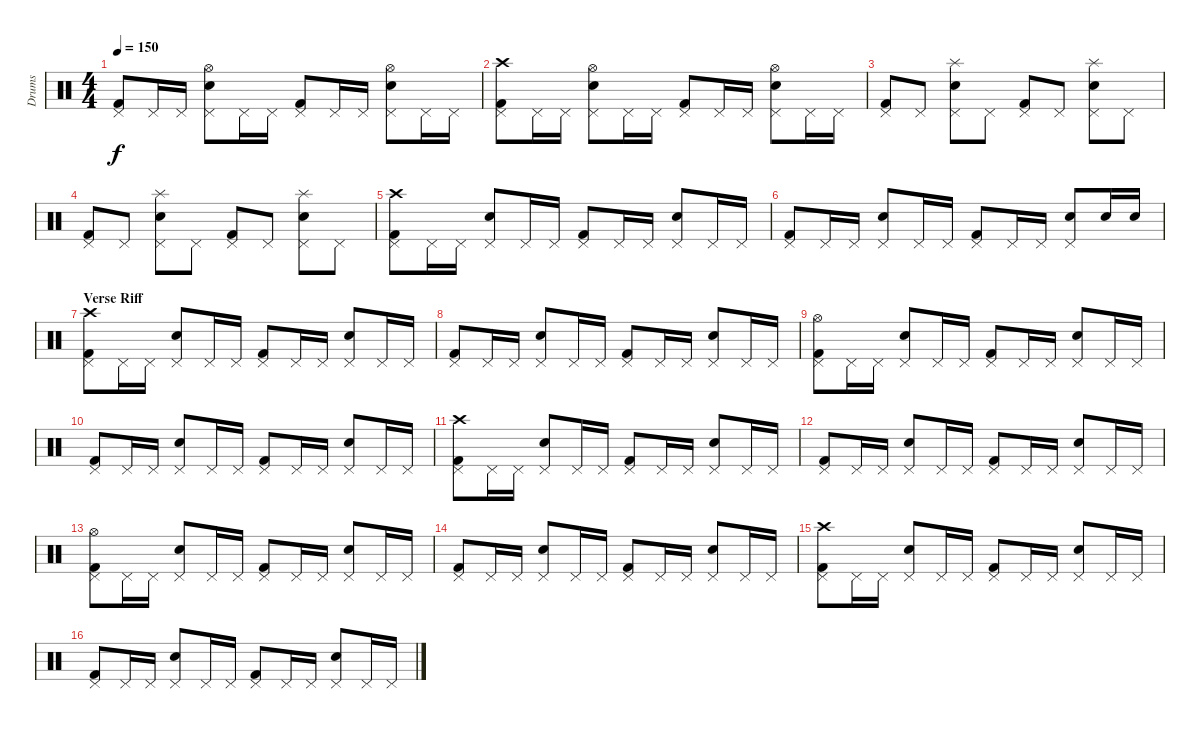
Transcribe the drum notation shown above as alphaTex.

\track ("Drums" "Drums") {instrument percussion}
\staff {score}
\articulation defaults
\ts (4 4)
\tempo 150
\clef neutral
\ks c
("Kick (hit) 2" "Pedal Hi-Hat (hit)").8{dy f} "Pedal Hi-Hat (hit)".16 "Pedal Hi-Hat (hit)".16 ("Snare (hit) 2" "Pedal Hi-Hat (hit)" "Hi-Hat (open)").8 "Pedal Hi-Hat (hit)".16 "Pedal Hi-Hat (hit)".16 ("Kick (hit) 2" "Pedal Hi-Hat (hit)").8 "Pedal Hi-Hat (hit)".16 "Pedal Hi-Hat (hit)".16 ("Snare (hit) 2" "Pedal Hi-Hat (hit)" "Hi-Hat (open)").8 "Pedal Hi-Hat (hit)".16 "Pedal Hi-Hat (hit)".16 |
("Kick (hit) 2" "Pedal Hi-Hat (hit)" "Crash high (hit)").8 "Pedal Hi-Hat (hit)".16 "Pedal Hi-Hat (hit)".16 ("Snare (hit) 2" "Pedal Hi-Hat (hit)" "Hi-Hat (open)").8 "Pedal Hi-Hat (hit)".16 "Pedal Hi-Hat (hit)".16 ("Kick (hit) 2" "Pedal Hi-Hat (hit)").8 "Pedal Hi-Hat (hit)".16 "Pedal Hi-Hat (hit)".16 ("Snare (hit) 2" "Pedal Hi-Hat (hit)" "Hi-Hat (open)").8 "Pedal Hi-Hat (hit)".16 "Pedal Hi-Hat (hit)".16 |
("Kick (hit) 2" "Pedal Hi-Hat (hit)").8 "Pedal Hi-Hat (hit)".8 ("Snare (hit) 2" "Pedal Hi-Hat (hit)" "Splash (hit)").8 "Pedal Hi-Hat (hit)".8 ("Kick (hit) 2" "Pedal Hi-Hat (hit)").8 "Pedal Hi-Hat (hit)".8 ("Snare (hit) 2" "Pedal Hi-Hat (hit)" "Splash (hit)").8 "Pedal Hi-Hat (hit)".8 |
("Kick (hit) 2" "Pedal Hi-Hat (hit)").8 "Pedal Hi-Hat (hit)".8 ("Snare (hit) 2" "Pedal Hi-Hat (hit)" "Splash (hit)").8 "Pedal Hi-Hat (hit)".8 ("Kick (hit) 2" "Pedal Hi-Hat (hit)").8 "Pedal Hi-Hat (hit)".8 ("Snare (hit) 2" "Pedal Hi-Hat (hit)" "Splash (hit)").8 "Pedal Hi-Hat (hit)".8 |
("Kick (hit) 2" "Pedal Hi-Hat (hit)" "Crash high (hit)").8 "Pedal Hi-Hat (hit)".16 "Pedal Hi-Hat (hit)".16 ("Snare (hit) 2" "Pedal Hi-Hat (hit)").8 "Pedal Hi-Hat (hit)".16 "Pedal Hi-Hat (hit)".16 ("Kick (hit) 2" "Pedal Hi-Hat (hit)").8 "Pedal Hi-Hat (hit)".16 "Pedal Hi-Hat (hit)".16 ("Snare (hit) 2" "Pedal Hi-Hat (hit)").8 "Pedal Hi-Hat (hit)".16 "Pedal Hi-Hat (hit)".16 |
("Kick (hit) 2" "Pedal Hi-Hat (hit)").8 "Pedal Hi-Hat (hit)".16 "Pedal Hi-Hat (hit)".16 ("Snare (hit) 2" "Pedal Hi-Hat (hit)").8 "Pedal Hi-Hat (hit)".16 "Pedal Hi-Hat (hit)".16 ("Kick (hit) 2" "Pedal Hi-Hat (hit)").8 "Pedal Hi-Hat (hit)".16 "Pedal Hi-Hat (hit)".16 ("Snare (hit) 2" "Pedal Hi-Hat (hit)").8 "Snare (hit) 2".16 "Snare (hit) 2".16 |
\section ("" "Verse Riff")
("Kick (hit) 2" "Pedal Hi-Hat (hit)" "Crash high (hit)").8 "Pedal Hi-Hat (hit)".16 "Pedal Hi-Hat (hit)".16 ("Snare (hit) 2" "Pedal Hi-Hat (hit)").8 "Pedal Hi-Hat (hit)".16 "Pedal Hi-Hat (hit)".16 ("Kick (hit) 2" "Pedal Hi-Hat (hit)").8 "Pedal Hi-Hat (hit)".16 "Pedal Hi-Hat (hit)".16 ("Snare (hit) 2" "Pedal Hi-Hat (hit)").8 "Pedal Hi-Hat (hit)".16 "Pedal Hi-Hat (hit)".16 |
("Kick (hit) 2" "Pedal Hi-Hat (hit)").8 "Pedal Hi-Hat (hit)".16 "Pedal Hi-Hat (hit)".16 ("Snare (hit) 2" "Pedal Hi-Hat (hit)").8 "Pedal Hi-Hat (hit)".16 "Pedal Hi-Hat (hit)".16 ("Kick (hit) 2" "Pedal Hi-Hat (hit)").8 "Pedal Hi-Hat (hit)".16 "Pedal Hi-Hat (hit)".16 ("Snare (hit) 2" "Pedal Hi-Hat (hit)").8 "Pedal Hi-Hat (hit)".16 "Pedal Hi-Hat (hit)".16 |
("Kick (hit) 2" "Pedal Hi-Hat (hit)" "Hi-Hat (open)").8 "Pedal Hi-Hat (hit)".16 "Pedal Hi-Hat (hit)".16 ("Snare (hit) 2" "Pedal Hi-Hat (hit)").8 "Pedal Hi-Hat (hit)".16 "Pedal Hi-Hat (hit)".16 ("Kick (hit) 2" "Pedal Hi-Hat (hit)").8 "Pedal Hi-Hat (hit)".16 "Pedal Hi-Hat (hit)".16 ("Snare (hit) 2" "Pedal Hi-Hat (hit)").8 "Pedal Hi-Hat (hit)".16 "Pedal Hi-Hat (hit)".16 |
("Kick (hit) 2" "Pedal Hi-Hat (hit)").8 "Pedal Hi-Hat (hit)".16 "Pedal Hi-Hat (hit)".16 ("Snare (hit) 2" "Pedal Hi-Hat (hit)").8 "Pedal Hi-Hat (hit)".16 "Pedal Hi-Hat (hit)".16 ("Kick (hit) 2" "Pedal Hi-Hat (hit)").8 "Pedal Hi-Hat (hit)".16 "Pedal Hi-Hat (hit)".16 ("Snare (hit) 2" "Pedal Hi-Hat (hit)").8 "Pedal Hi-Hat (hit)".16 "Pedal Hi-Hat (hit)".16 |
("Kick (hit) 2" "Pedal Hi-Hat (hit)" "Crash high (hit)").8 "Pedal Hi-Hat (hit)".16 "Pedal Hi-Hat (hit)".16 ("Snare (hit) 2" "Pedal Hi-Hat (hit)").8 "Pedal Hi-Hat (hit)".16 "Pedal Hi-Hat (hit)".16 ("Kick (hit) 2" "Pedal Hi-Hat (hit)").8 "Pedal Hi-Hat (hit)".16 "Pedal Hi-Hat (hit)".16 ("Snare (hit) 2" "Pedal Hi-Hat (hit)").8 "Pedal Hi-Hat (hit)".16 "Pedal Hi-Hat (hit)".16 |
("Kick (hit) 2" "Pedal Hi-Hat (hit)").8 "Pedal Hi-Hat (hit)".16 "Pedal Hi-Hat (hit)".16 ("Snare (hit) 2" "Pedal Hi-Hat (hit)").8 "Pedal Hi-Hat (hit)".16 "Pedal Hi-Hat (hit)".16 ("Kick (hit) 2" "Pedal Hi-Hat (hit)").8 "Pedal Hi-Hat (hit)".16 "Pedal Hi-Hat (hit)".16 ("Snare (hit) 2" "Pedal Hi-Hat (hit)").8 "Pedal Hi-Hat (hit)".16 "Pedal Hi-Hat (hit)".16 |
("Kick (hit) 2" "Pedal Hi-Hat (hit)" "Hi-Hat (open)").8 "Pedal Hi-Hat (hit)".16 "Pedal Hi-Hat (hit)".16 ("Snare (hit) 2" "Pedal Hi-Hat (hit)").8 "Pedal Hi-Hat (hit)".16 "Pedal Hi-Hat (hit)".16 ("Kick (hit) 2" "Pedal Hi-Hat (hit)").8 "Pedal Hi-Hat (hit)".16 "Pedal Hi-Hat (hit)".16 ("Snare (hit) 2" "Pedal Hi-Hat (hit)").8 "Pedal Hi-Hat (hit)".16 "Pedal Hi-Hat (hit)".16 |
("Kick (hit) 2" "Pedal Hi-Hat (hit)").8 "Pedal Hi-Hat (hit)".16 "Pedal Hi-Hat (hit)".16 ("Snare (hit) 2" "Pedal Hi-Hat (hit)").8 "Pedal Hi-Hat (hit)".16 "Pedal Hi-Hat (hit)".16 ("Kick (hit) 2" "Pedal Hi-Hat (hit)").8 "Pedal Hi-Hat (hit)".16 "Pedal Hi-Hat (hit)".16 ("Snare (hit) 2" "Pedal Hi-Hat (hit)").8 "Pedal Hi-Hat (hit)".16 "Pedal Hi-Hat (hit)".16 |
("Kick (hit) 2" "Pedal Hi-Hat (hit)" "Crash high (hit)").8 "Pedal Hi-Hat (hit)".16 "Pedal Hi-Hat (hit)".16 ("Snare (hit) 2" "Pedal Hi-Hat (hit)").8 "Pedal Hi-Hat (hit)".16 "Pedal Hi-Hat (hit)".16 ("Kick (hit) 2" "Pedal Hi-Hat (hit)").8 "Pedal Hi-Hat (hit)".16 "Pedal Hi-Hat (hit)".16 ("Snare (hit) 2" "Pedal Hi-Hat (hit)").8 "Pedal Hi-Hat (hit)".16 "Pedal Hi-Hat (hit)".16 |
("Kick (hit) 2" "Pedal Hi-Hat (hit)").8 "Pedal Hi-Hat (hit)".16 "Pedal Hi-Hat (hit)".16 ("Snare (hit) 2" "Pedal Hi-Hat (hit)").8 "Pedal Hi-Hat (hit)".16 "Pedal Hi-Hat (hit)".16 ("Kick (hit) 2" "Pedal Hi-Hat (hit)").8 "Pedal Hi-Hat (hit)".16 "Pedal Hi-Hat (hit)".16 ("Snare (hit) 2" "Pedal Hi-Hat (hit)").8 "Pedal Hi-Hat (hit)".16 "Pedal Hi-Hat (hit)".16
